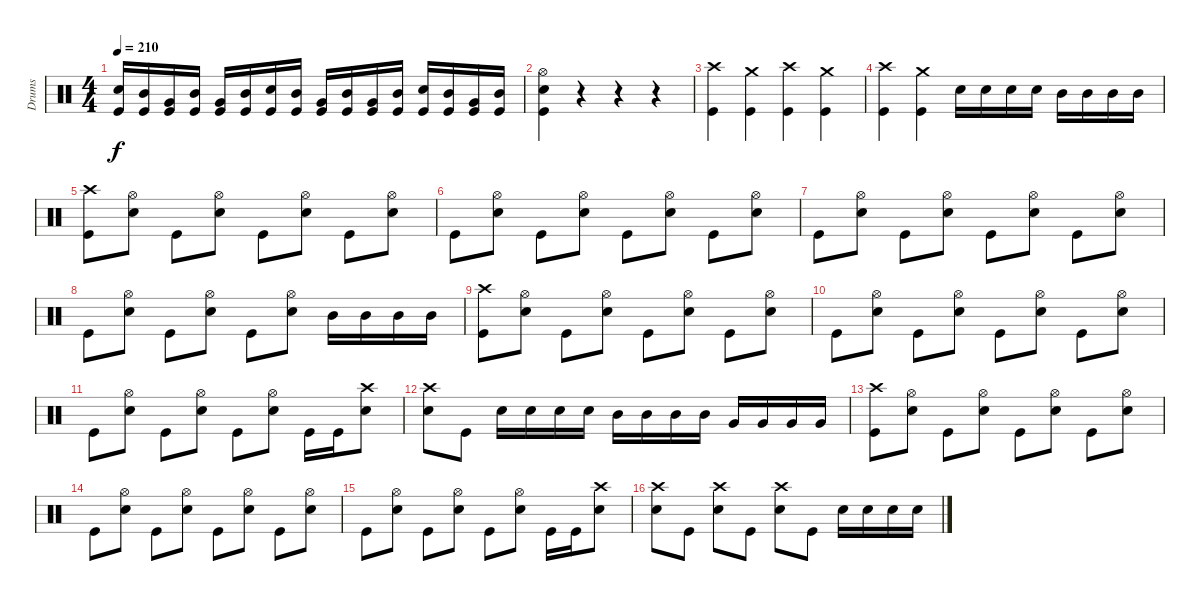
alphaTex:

\track ("Drums" "Drums") {instrument percussion}
\staff {score}
\articulation defaults
\ts (4 4)
\tempo 210
\clef neutral
\ks c
("Electric Snare (hit)" "Kick (hit)").16{dy f} ("Mid Tom (hit)" "Kick (hit)").16 ("Very Low Tom (hit)" "Kick (hit)").16 ("Mid Tom (hit)" "Kick (hit)").16 ("Very Low Tom (hit)" "Kick (hit)").16 ("Mid Tom (hit)" "Kick (hit)").16 ("Electric Snare (hit)" "Kick (hit)").16 ("Mid Tom (hit)" "Kick (hit)").16 ("Very Low Tom (hit)" "Kick (hit)").16 ("Mid Tom (hit)" "Kick (hit)").16 ("Very Low Tom (hit)" "Kick (hit)").16 ("Mid Tom (hit)" "Kick (hit)").16 ("Electric Snare (hit)" "Kick (hit)").16 ("Mid Tom (hit)" "Kick (hit)").16 ("Very Low Tom (hit)" "Kick (hit)").16 ("Mid Tom (hit)" "Kick (hit)").16 |
("Hi-Hat (open)" "Electric Snare (hit)" "Kick (hit)").4 r.4 r.4 r.4 |
("Crash high (hit)" "Kick (hit)").4 ("Crash medium (hit)" "Kick (hit)").4 ("Crash high (hit)" "Kick (hit)").4 ("Crash medium (hit)" "Kick (hit)").4 |
("Crash high (hit)" "Kick (hit)").4 ("Crash medium (hit)" "Kick (hit)").4 "Electric Snare (hit)".16 "Electric Snare (hit)".16 "Electric Snare (hit)".16 "Electric Snare (hit)".16 "Mid Tom (hit)".16 "Mid Tom (hit)".16 "Mid Tom (hit)".16 "Mid Tom (hit)".16 |
("Crash high (hit)" "Kick (hit)").8 ("Hi-Hat (open)" "Electric Snare (hit)").8 "Kick (hit)".8 ("Electric Snare (hit)" "Hi-Hat (open)").8 "Kick (hit)".8 ("Electric Snare (hit)" "Hi-Hat (open)").8 "Kick (hit)".8 ("Electric Snare (hit)" "Hi-Hat (open)").8 |
"Kick (hit)".8 ("Electric Snare (hit)" "Hi-Hat (open)").8 "Kick (hit)".8 ("Electric Snare (hit)" "Hi-Hat (open)").8 "Kick (hit)".8 ("Electric Snare (hit)" "Hi-Hat (open)").8 "Kick (hit)".8 ("Electric Snare (hit)" "Hi-Hat (open)").8 |
"Kick (hit)".8 ("Electric Snare (hit)" "Hi-Hat (open)").8 "Kick (hit)".8 ("Electric Snare (hit)" "Hi-Hat (open)").8 "Kick (hit)".8 ("Electric Snare (hit)" "Hi-Hat (open)").8 "Kick (hit)".8 ("Electric Snare (hit)" "Hi-Hat (open)").8 |
"Kick (hit)".8 ("Electric Snare (hit)" "Hi-Hat (open)").8 "Kick (hit)".8 ("Electric Snare (hit)" "Hi-Hat (open)").8 "Kick (hit)".8 ("Electric Snare (hit)" "Hi-Hat (open)").8 "Mid Tom (hit)".16 "Mid Tom (hit)".16 "Mid Tom (hit)".16 "Mid Tom (hit)".16 |
("Crash high (hit)" "Kick (hit)").8 ("Hi-Hat (open)" "Electric Snare (hit)").8 "Kick (hit)".8 ("Electric Snare (hit)" "Hi-Hat (open)").8 "Kick (hit)".8 ("Electric Snare (hit)" "Hi-Hat (open)").8 "Kick (hit)".8 ("Electric Snare (hit)" "Hi-Hat (open)").8 |
"Kick (hit)".8 ("Electric Snare (hit)" "Hi-Hat (open)").8 "Kick (hit)".8 ("Electric Snare (hit)" "Hi-Hat (open)").8 "Kick (hit)".8 ("Electric Snare (hit)" "Hi-Hat (open)").8 "Kick (hit)".8 ("Electric Snare (hit)" "Hi-Hat (open)").8 |
"Kick (hit)".8 ("Electric Snare (hit)" "Hi-Hat (open)").8 "Kick (hit)".8 ("Electric Snare (hit)" "Hi-Hat (open)").8 "Kick (hit)".8 ("Electric Snare (hit)" "Hi-Hat (open)").8 "Kick (hit)".16 "Kick (hit)".16 ("Crash high (hit)" "Electric Snare (hit)").8 |
("Crash high (hit)" "Electric Snare (hit)").8 "Kick (hit)".8 "Electric Snare (hit)".16 "Electric Snare (hit)".16 "Electric Snare (hit)".16 "Electric Snare (hit)".16 "Mid Tom (hit)".16 "Mid Tom (hit)".16 "Mid Tom (hit)".16 "Mid Tom (hit)".16 "Very Low Tom (hit)".16 "Very Low Tom (hit)".16 "Very Low Tom (hit)".16 "Very Low Tom (hit)".16 |
("Crash high (hit)" "Kick (hit)").8 ("Hi-Hat (open)" "Electric Snare (hit)").8 "Kick (hit)".8 ("Electric Snare (hit)" "Hi-Hat (open)").8 "Kick (hit)".8 ("Electric Snare (hit)" "Hi-Hat (open)").8 "Kick (hit)".8 ("Electric Snare (hit)" "Hi-Hat (open)").8 |
"Kick (hit)".8 ("Electric Snare (hit)" "Hi-Hat (open)").8 "Kick (hit)".8 ("Electric Snare (hit)" "Hi-Hat (open)").8 "Kick (hit)".8 ("Electric Snare (hit)" "Hi-Hat (open)").8 "Kick (hit)".8 ("Electric Snare (hit)" "Hi-Hat (open)").8 |
"Kick (hit)".8 ("Electric Snare (hit)" "Hi-Hat (open)").8 "Kick (hit)".8 ("Electric Snare (hit)" "Hi-Hat (open)").8 "Kick (hit)".8 ("Electric Snare (hit)" "Hi-Hat (open)").8 "Kick (hit)".16 "Kick (hit)".16 ("Crash high (hit)" "Electric Snare (hit)").8 |
("Crash high (hit)" "Electric Snare (hit)").8 "Kick (hit)".8 ("Crash high (hit)" "Electric Snare (hit)").8 "Kick (hit)".8 ("Crash high (hit)" "Electric Snare (hit)").8 "Kick (hit)".8 "Electric Snare (hit)".16 "Electric Snare (hit)".16 "Electric Snare (hit)".16 "Electric Snare (hit)".16
